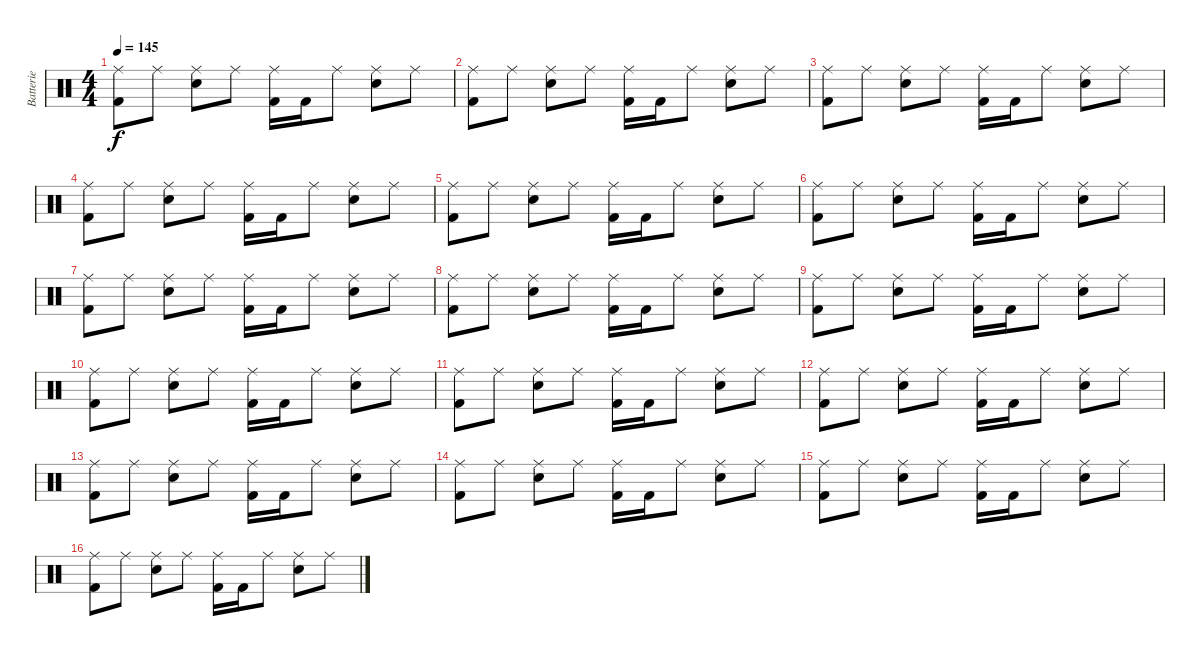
\track ("Batterie" "Batterie") {instrument percussion}
\staff {score}
\articulation defaults
\ts (4 4)
\tempo 145
\clef neutral
\ks c
("Ride (middle)" "Kick (hit) 2").8{dy f} "Ride (middle)".8 ("Ride (middle)" "Snare (hit) 2").8 "Ride (middle)".8 ("Ride (middle)" "Kick (hit) 2").16 "Kick (hit) 2".16 "Ride (middle)".8 ("Ride (middle)" "Snare (hit) 2").8 "Ride (middle)".8 |
("Ride (middle)" "Kick (hit) 2").8 "Ride (middle)".8 ("Ride (middle)" "Snare (hit) 2").8 "Ride (middle)".8 ("Ride (middle)" "Kick (hit) 2").16 "Kick (hit) 2".16 "Ride (middle)".8 ("Ride (middle)" "Snare (hit) 2").8 "Ride (middle)".8 |
("Ride (middle)" "Kick (hit) 2").8 "Ride (middle)".8 ("Ride (middle)" "Snare (hit) 2").8 "Ride (middle)".8 ("Ride (middle)" "Kick (hit) 2").16 "Kick (hit) 2".16 "Ride (middle)".8 ("Ride (middle)" "Snare (hit) 2").8 "Ride (middle)".8 |
("Ride (middle)" "Kick (hit) 2").8 "Ride (middle)".8 ("Ride (middle)" "Snare (hit) 2").8 "Ride (middle)".8 ("Ride (middle)" "Kick (hit) 2").16 "Kick (hit) 2".16 "Ride (middle)".8 ("Ride (middle)" "Snare (hit) 2").8 "Ride (middle)".8 |
("Ride (middle)" "Kick (hit) 2").8 "Ride (middle)".8 ("Ride (middle)" "Snare (hit) 2").8 "Ride (middle)".8 ("Ride (middle)" "Kick (hit) 2").16 "Kick (hit) 2".16 "Ride (middle)".8 ("Ride (middle)" "Snare (hit) 2").8 "Ride (middle)".8 |
("Ride (middle)" "Kick (hit) 2").8 "Ride (middle)".8 ("Ride (middle)" "Snare (hit) 2").8 "Ride (middle)".8 ("Ride (middle)" "Kick (hit) 2").16 "Kick (hit) 2".16 "Ride (middle)".8 ("Ride (middle)" "Snare (hit) 2").8 "Ride (middle)".8 |
("Ride (middle)" "Kick (hit) 2").8 "Ride (middle)".8 ("Ride (middle)" "Snare (hit) 2").8 "Ride (middle)".8 ("Ride (middle)" "Kick (hit) 2").16 "Kick (hit) 2".16 "Ride (middle)".8 ("Ride (middle)" "Snare (hit) 2").8 "Ride (middle)".8 |
("Ride (middle)" "Kick (hit) 2").8 "Ride (middle)".8 ("Ride (middle)" "Snare (hit) 2").8 "Ride (middle)".8 ("Ride (middle)" "Kick (hit) 2").16 "Kick (hit) 2".16 "Ride (middle)".8 ("Ride (middle)" "Snare (hit) 2").8 "Ride (middle)".8 |
("Ride (middle)" "Kick (hit) 2").8 "Ride (middle)".8 ("Ride (middle)" "Snare (hit) 2").8 "Ride (middle)".8 ("Ride (middle)" "Kick (hit) 2").16 "Kick (hit) 2".16 "Ride (middle)".8 ("Ride (middle)" "Snare (hit) 2").8 "Ride (middle)".8 |
\section ("" "")
("Ride (middle)" "Kick (hit) 2").8 "Ride (middle)".8 ("Ride (middle)" "Snare (hit) 2").8 "Ride (middle)".8 ("Ride (middle)" "Kick (hit) 2").16 "Kick (hit) 2".16 "Ride (middle)".8 ("Ride (middle)" "Snare (hit) 2").8 "Ride (middle)".8 |
("Ride (middle)" "Kick (hit) 2").8 "Ride (middle)".8 ("Ride (middle)" "Snare (hit) 2").8 "Ride (middle)".8 ("Ride (middle)" "Kick (hit) 2").16 "Kick (hit) 2".16 "Ride (middle)".8 ("Ride (middle)" "Snare (hit) 2").8 "Ride (middle)".8 |
("Ride (middle)" "Kick (hit) 2").8 "Ride (middle)".8 ("Ride (middle)" "Snare (hit) 2").8 "Ride (middle)".8 ("Ride (middle)" "Kick (hit) 2").16 "Kick (hit) 2".16 "Ride (middle)".8 ("Ride (middle)" "Snare (hit) 2").8 "Ride (middle)".8 |
("Ride (middle)" "Kick (hit) 2").8 "Ride (middle)".8 ("Ride (middle)" "Snare (hit) 2").8 "Ride (middle)".8 ("Ride (middle)" "Kick (hit) 2").16 "Kick (hit) 2".16 "Ride (middle)".8 ("Ride (middle)" "Snare (hit) 2").8 "Ride (middle)".8 |
("Ride (middle)" "Kick (hit) 2").8 "Ride (middle)".8 ("Ride (middle)" "Snare (hit) 2").8 "Ride (middle)".8 ("Ride (middle)" "Kick (hit) 2").16 "Kick (hit) 2".16 "Ride (middle)".8 ("Ride (middle)" "Snare (hit) 2").8 "Ride (middle)".8 |
("Ride (middle)" "Kick (hit) 2").8 "Ride (middle)".8 ("Ride (middle)" "Snare (hit) 2").8 "Ride (middle)".8 ("Ride (middle)" "Kick (hit) 2").16 "Kick (hit) 2".16 "Ride (middle)".8 ("Ride (middle)" "Snare (hit) 2").8 "Ride (middle)".8 |
("Ride (middle)" "Kick (hit) 2").8 "Ride (middle)".8 ("Ride (middle)" "Snare (hit) 2").8 "Ride (middle)".8 ("Ride (middle)" "Kick (hit) 2").16 "Kick (hit) 2".16 "Ride (middle)".8 ("Ride (middle)" "Snare (hit) 2").8 "Ride (middle)".8
